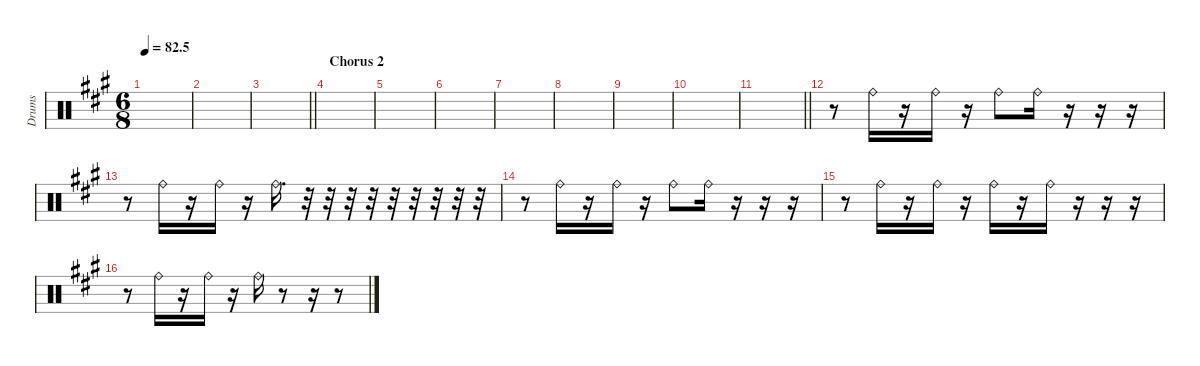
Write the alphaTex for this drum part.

\defaultSystemsLayout 4
\hideDynamics
\bracketExtendMode nobrackets
\otherSystemsTrackNameOrientation horizontal
\track ("Raid" "Drums") {instrument percussion}
\staff {score}
\articulation defaults
\ts (6 8)
\tempo
82.5
\accidentals auto
\clef neutral
\ottava regular
\simile none
\scale
0.333333
\ks a
|
\scale
0.333333 |
\scale
0.333333
\barLineRight lightlight
|
\section ("" "Chorus 2")
\scale
0.333333 |
\scale
0.333333 |
\scale
0.333333 |
\scale
0.333333 |
\scale
0.333333 |
\scale
0.333333 |
\scale
0.333333 |
\scale
0.333333
\barLineRight lightlight
|
\scale
0.333333 r.8 "Ride (bell)"{acc forcenatural}.16 r.16 "Ride (bell)"{acc forcenatural}.16 r.16 "Ride (bell)"{acc forcenatural}.8 "Ride (bell)"{acc forcenatural}.16 r.16 r.16 r.16 |
\scale
0.333333 r.8 "Ride (bell)"{acc forcenatural}.16 r.16 "Ride (bell)"{acc forcenatural}.16 r.16 "Ride (bell)"{acc forcenatural}.16{d} r.32 r.32 r.32 r.32 r.32 r.32 r.32 r.32 r.32 |
\scale
0.333333 r.8 "Ride (bell)"{acc forcenatural}.16 r.16 "Ride (bell)"{acc forcenatural}.16 r.16 "Ride (bell)"{acc forcenatural}.8 "Ride (bell)"{acc forcenatural}.16 r.16 r.16 r.16 |
\scale
0.333333 r.8 "Ride (bell)"{acc forcenatural}.16 r.16 "Ride (bell)"{acc forcenatural}.16 r.16 "Ride (bell)"{acc forcenatural}.16 r.16 "Ride (bell)"{acc forcenatural}.16 r.16 r.16 r.16 |
\scale
0.333333 r.8 "Ride (bell)"{acc forcenatural}.16 r.16 "Ride (bell)"{acc forcenatural}.16 r.16 "Ride (bell)"{acc forcenatural}.16 r.8 r.16 r.8
